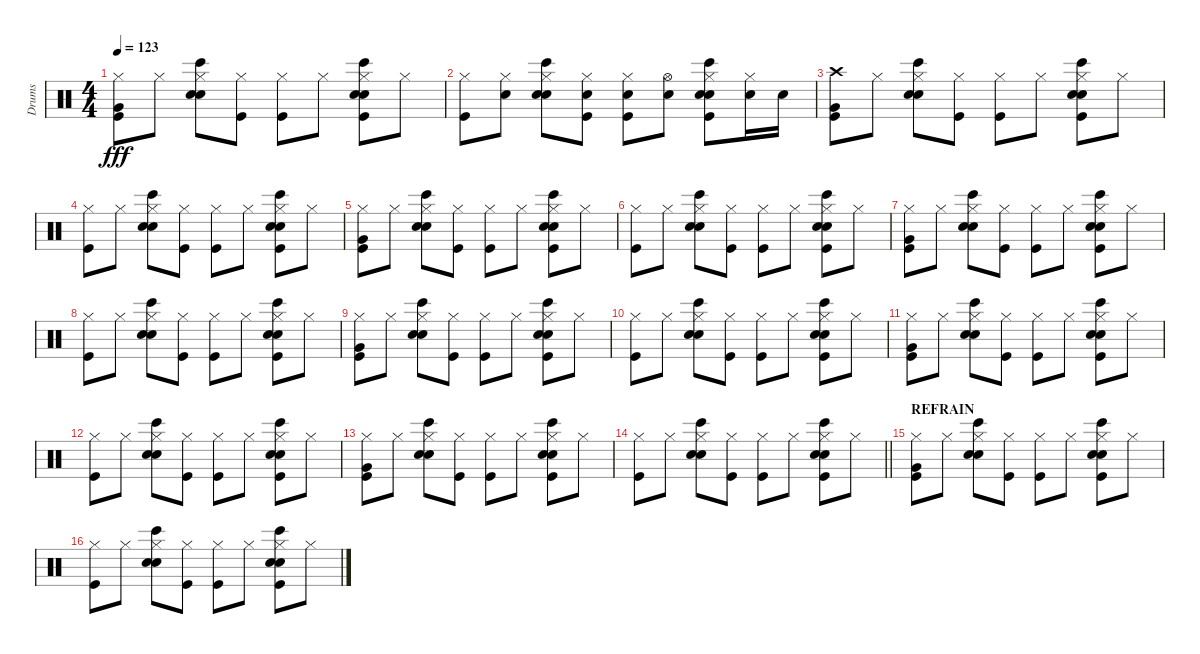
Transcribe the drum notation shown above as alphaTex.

\track ("Drums" "Drums") {instrument percussion}
\staff {score}
\articulation defaults
\ts (4 4)
\tempo 123
\clef neutral
\ks c
("Kick (hit)" "Hi-Hat (closed)" "Very Low Tom (hit)").8{dy fff} "Hi-Hat (closed)".8 ("Hi-Hat (closed)" "Bongo High (hit)" "Hand Clap (hit)" "Electric Snare (hit)").8 ("Kick (hit)" "Hi-Hat (closed)").8 ("Hi-Hat (closed)" "Kick (hit)").8 "Hi-Hat (closed)".8 ("Hi-Hat (closed)" "Kick (hit)" "Electric Snare (hit)" "Hand Clap (hit)" "Bongo High (hit)").8 "Hi-Hat (closed)".8 |
("Hi-Hat (closed)" "Kick (hit)").8 ("Hi-Hat (closed)" "Electric Snare (hit)").8 ("Hi-Hat (closed)" "Hand Clap (hit)" "Bongo High (hit)" "Electric Snare (hit)").8 ("Kick (hit)" "Hi-Hat (closed)" "Electric Snare (hit)").8 ("Hi-Hat (closed)" "Kick (hit)" "Electric Snare (hit)").8 ("Hi-Hat (open)" "Electric Snare (hit)").8 ("Hi-Hat (closed)" "Hand Clap (hit)" "Kick (hit)" "Bongo High (hit)" "Electric Snare (hit)").8 ("Electric Snare (hit)" "Hi-Hat (closed)").16 "Electric Snare (hit)".16 |
("Kick (hit)" "Crash high (hit)" "Very Low Tom (hit)").8 "Hi-Hat (closed)".8 ("Hi-Hat (closed)" "Bongo High (hit)" "Hand Clap (hit)" "Electric Snare (hit)").8 ("Kick (hit)" "Hi-Hat (closed)").8 ("Hi-Hat (closed)" "Kick (hit)").8 "Hi-Hat (closed)".8 ("Hi-Hat (closed)" "Kick (hit)" "Electric Snare (hit)" "Hand Clap (hit)" "Bongo High (hit)").8 "Hi-Hat (closed)".8 |
("Hi-Hat (closed)" "Kick (hit)").8 "Hi-Hat (closed)".8 ("Hi-Hat (closed)" "Electric Snare (hit)" "Bongo High (hit)" "Hand Clap (hit)").8 ("Hi-Hat (closed)" "Kick (hit)").8 ("Hi-Hat (closed)" "Kick (hit)").8 "Hi-Hat (closed)".8 ("Hi-Hat (closed)" "Kick (hit)" "Electric Snare (hit)" "Bongo High (hit)" "Hand Clap (hit)").8 "Hi-Hat (closed)".8 |
("Kick (hit)" "Hi-Hat (closed)" "Very Low Tom (hit)").8 "Hi-Hat (closed)".8 ("Hi-Hat (closed)" "Bongo High (hit)" "Hand Clap (hit)" "Electric Snare (hit)").8 ("Kick (hit)" "Hi-Hat (closed)").8 ("Hi-Hat (closed)" "Kick (hit)").8 "Hi-Hat (closed)".8 ("Hi-Hat (closed)" "Kick (hit)" "Electric Snare (hit)" "Hand Clap (hit)" "Bongo High (hit)").8 "Hi-Hat (closed)".8 |
("Hi-Hat (closed)" "Kick (hit)").8 "Hi-Hat (closed)".8 ("Hi-Hat (closed)" "Electric Snare (hit)" "Bongo High (hit)" "Hand Clap (hit)").8 ("Hi-Hat (closed)" "Kick (hit)").8 ("Hi-Hat (closed)" "Kick (hit)").8 "Hi-Hat (closed)".8 ("Hi-Hat (closed)" "Kick (hit)" "Electric Snare (hit)" "Bongo High (hit)" "Hand Clap (hit)").8 "Hi-Hat (closed)".8 |
("Kick (hit)" "Hi-Hat (closed)" "Very Low Tom (hit)").8 "Hi-Hat (closed)".8 ("Hi-Hat (closed)" "Bongo High (hit)" "Hand Clap (hit)" "Electric Snare (hit)").8 ("Kick (hit)" "Hi-Hat (closed)").8 ("Hi-Hat (closed)" "Kick (hit)").8 "Hi-Hat (closed)".8 ("Hi-Hat (closed)" "Kick (hit)" "Electric Snare (hit)" "Hand Clap (hit)" "Bongo High (hit)").8 "Hi-Hat (closed)".8 |
("Hi-Hat (closed)" "Kick (hit)").8 "Hi-Hat (closed)".8 ("Hi-Hat (closed)" "Electric Snare (hit)" "Bongo High (hit)" "Hand Clap (hit)").8 ("Hi-Hat (closed)" "Kick (hit)").8 ("Hi-Hat (closed)" "Kick (hit)").8 "Hi-Hat (closed)".8 ("Hi-Hat (closed)" "Kick (hit)" "Electric Snare (hit)" "Bongo High (hit)" "Hand Clap (hit)").8 "Hi-Hat (closed)".8 |
("Kick (hit)" "Hi-Hat (closed)" "Very Low Tom (hit)").8 "Hi-Hat (closed)".8 ("Hi-Hat (closed)" "Bongo High (hit)" "Hand Clap (hit)" "Electric Snare (hit)").8 ("Kick (hit)" "Hi-Hat (closed)").8 ("Hi-Hat (closed)" "Kick (hit)").8 "Hi-Hat (closed)".8 ("Hi-Hat (closed)" "Kick (hit)" "Electric Snare (hit)" "Hand Clap (hit)" "Bongo High (hit)").8 "Hi-Hat (closed)".8 |
("Hi-Hat (closed)" "Kick (hit)").8 "Hi-Hat (closed)".8 ("Hi-Hat (closed)" "Electric Snare (hit)" "Bongo High (hit)" "Hand Clap (hit)").8 ("Hi-Hat (closed)" "Kick (hit)").8 ("Hi-Hat (closed)" "Kick (hit)").8 "Hi-Hat (closed)".8 ("Hi-Hat (closed)" "Kick (hit)" "Electric Snare (hit)" "Bongo High (hit)" "Hand Clap (hit)").8 "Hi-Hat (closed)".8 |
("Kick (hit)" "Hi-Hat (closed)" "Very Low Tom (hit)").8 "Hi-Hat (closed)".8 ("Hi-Hat (closed)" "Bongo High (hit)" "Hand Clap (hit)" "Electric Snare (hit)").8 ("Kick (hit)" "Hi-Hat (closed)").8 ("Hi-Hat (closed)" "Kick (hit)").8 "Hi-Hat (closed)".8 ("Hi-Hat (closed)" "Kick (hit)" "Electric Snare (hit)" "Hand Clap (hit)" "Bongo High (hit)").8 "Hi-Hat (closed)".8 |
("Hi-Hat (closed)" "Kick (hit)").8 "Hi-Hat (closed)".8 ("Hi-Hat (closed)" "Electric Snare (hit)" "Bongo High (hit)" "Hand Clap (hit)").8 ("Hi-Hat (closed)" "Kick (hit)").8 ("Hi-Hat (closed)" "Kick (hit)").8 "Hi-Hat (closed)".8 ("Hi-Hat (closed)" "Kick (hit)" "Electric Snare (hit)" "Bongo High (hit)" "Hand Clap (hit)").8 "Hi-Hat (closed)".8 |
("Kick (hit)" "Hi-Hat (closed)" "Very Low Tom (hit)").8 "Hi-Hat (closed)".8 ("Hi-Hat (closed)" "Bongo High (hit)" "Hand Clap (hit)" "Electric Snare (hit)").8 ("Kick (hit)" "Hi-Hat (closed)").8 ("Hi-Hat (closed)" "Kick (hit)").8 "Hi-Hat (closed)".8 ("Hi-Hat (closed)" "Kick (hit)" "Electric Snare (hit)" "Hand Clap (hit)" "Bongo High (hit)").8 "Hi-Hat (closed)".8 |
\barLineRight lightlight
("Hi-Hat (closed)" "Kick (hit)").8 "Hi-Hat (closed)".8 ("Hi-Hat (closed)" "Electric Snare (hit)" "Bongo High (hit)" "Hand Clap (hit)").8 ("Hi-Hat (closed)" "Kick (hit)").8 ("Hi-Hat (closed)" "Kick (hit)").8 "Hi-Hat (closed)".8 ("Hi-Hat (closed)" "Kick (hit)" "Electric Snare (hit)" "Bongo High (hit)" "Hand Clap (hit)").8 "Hi-Hat (closed)".8 |
\section ("" "REFRAIN")
("Kick (hit)" "Hi-Hat (closed)" "Very Low Tom (hit)").8 "Hi-Hat (closed)".8 ("Hi-Hat (closed)" "Bongo High (hit)" "Hand Clap (hit)" "Electric Snare (hit)").8 ("Kick (hit)" "Hi-Hat (closed)").8 ("Hi-Hat (closed)" "Kick (hit)").8 "Hi-Hat (closed)".8 ("Hi-Hat (closed)" "Kick (hit)" "Electric Snare (hit)" "Hand Clap (hit)" "Bongo High (hit)").8 "Hi-Hat (closed)".8 |
("Hi-Hat (closed)" "Kick (hit)").8 "Hi-Hat (closed)".8 ("Hi-Hat (closed)" "Electric Snare (hit)" "Bongo High (hit)" "Hand Clap (hit)").8 ("Hi-Hat (closed)" "Kick (hit)").8 ("Hi-Hat (closed)" "Kick (hit)").8 "Hi-Hat (closed)".8 ("Hi-Hat (closed)" "Kick (hit)" "Electric Snare (hit)" "Bongo High (hit)" "Hand Clap (hit)").8 "Hi-Hat (closed)".8
